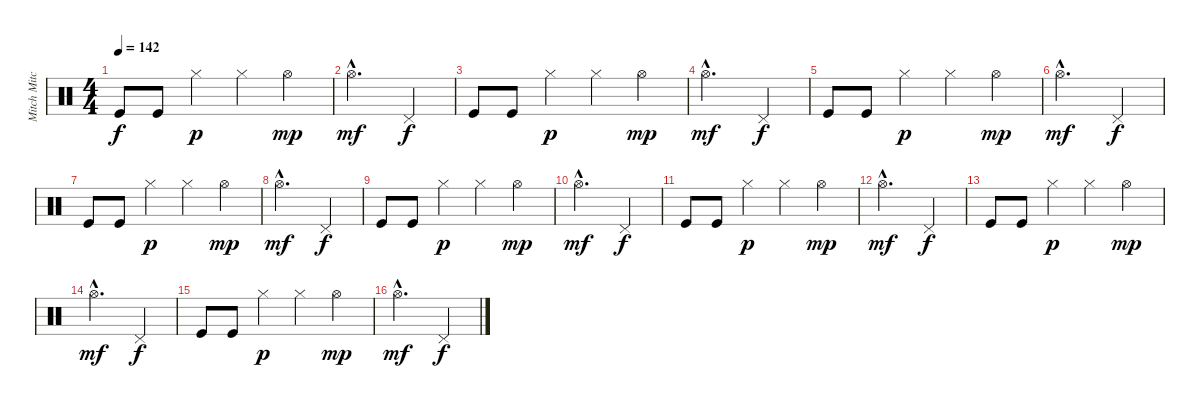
\track ("Mitch Mitchell" "Mitch Mitc") {instrument percussion}
\staff {score}
\articulation defaults
\ts (4 4)
\tempo 142
\clef neutral
\ks c "Kick (hit)".8{dy f} "Kick (hit)".8 "Hi-Hat (closed)".4{dy p} "Hi-Hat (closed)".4 "Hi-Hat (open)".4{dy mp}
|
"Hi-Hat (open)"{hac}.2{d dy mf} "Pedal Hi-Hat (hit)".4{dy f} |
"Kick (hit)".8 "Kick (hit)".8 "Hi-Hat (closed)".4{dy p} "Hi-Hat (closed)".4 "Hi-Hat (open)".4{dy mp} |
"Hi-Hat (open)"{hac}.2{d dy mf} "Pedal Hi-Hat (hit)".4{dy f} |
"Kick (hit)".8 "Kick (hit)".8 "Hi-Hat (closed)".4{dy p} "Hi-Hat (closed)".4 "Hi-Hat (open)".4{dy mp} |
"Hi-Hat (open)"{hac}.2{d dy mf} "Pedal Hi-Hat (hit)".4{dy f} |
"Kick (hit)".8 "Kick (hit)".8 "Hi-Hat (closed)".4{dy p} "Hi-Hat (closed)".4 "Hi-Hat (open)".4{dy mp} |
"Hi-Hat (open)"{hac}.2{d dy mf} "Pedal Hi-Hat (hit)".4{dy f} |
"Kick (hit)".8 "Kick (hit)".8 "Hi-Hat (closed)".4{dy p} "Hi-Hat (closed)".4 "Hi-Hat (open)".4{dy mp} |
"Hi-Hat (open)"{hac}.2{d dy mf} "Pedal Hi-Hat (hit)".4{dy f} |
"Kick (hit)".8 "Kick (hit)".8 "Hi-Hat (closed)".4{dy p} "Hi-Hat (closed)".4 "Hi-Hat (open)".4{dy mp} |
"Hi-Hat (open)"{hac}.2{d dy mf} "Pedal Hi-Hat (hit)".4{dy f} |
"Kick (hit)".8 "Kick (hit)".8 "Hi-Hat (closed)".4{dy p} "Hi-Hat (closed)".4 "Hi-Hat (open)".4{dy mp} |
"Hi-Hat (open)"{hac}.2{d dy mf} "Pedal Hi-Hat (hit)".4{dy f} |
"Kick (hit)".8 "Kick (hit)".8 "Hi-Hat (closed)".4{dy p} "Hi-Hat (closed)".4 "Hi-Hat (open)".4{dy mp} |
"Hi-Hat (open)"{hac}.2{d dy mf} "Pedal Hi-Hat (hit)".4{dy f}
